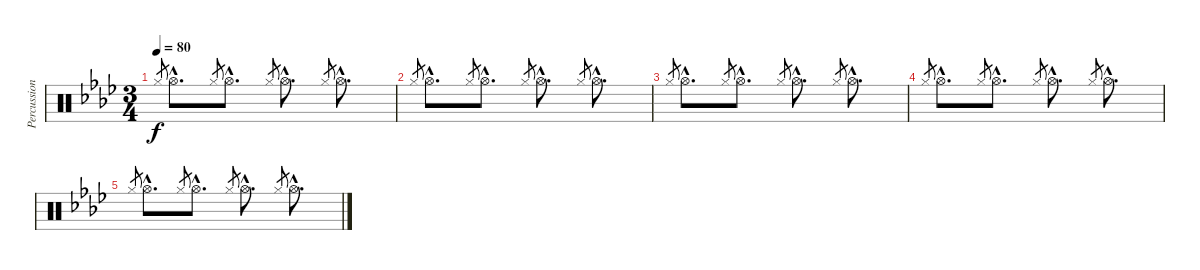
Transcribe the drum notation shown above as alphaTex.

\track ("Percussion" "Percussion") {instrument percussion}
\staff {score}
\articulation defaults
\ts (3 4)
\tempo 80
\clef neutral
\ks ab "Hi-Hat (closed)".8{gr dy f} "Hi-Hat (open)"{hac}.8{d} "Hi-Hat (closed)".8{gr} "Hi-Hat (open)"{hac}.8{d} "Hi-Hat (closed)".8{gr} "Hi-Hat (open)"{hac}.8{d} "Hi-Hat (closed)".8{gr} "Hi-Hat (open)"{hac}.8{d}
|
"Hi-Hat (closed)".8{gr} "Hi-Hat (open)"{hac}.8{d} "Hi-Hat (closed)".8{gr} "Hi-Hat (open)"{hac}.8{d} "Hi-Hat (closed)".8{gr} "Hi-Hat (open)"{hac}.8{d} "Hi-Hat (closed)".8{gr} "Hi-Hat (open)"{hac}.8{d} |
"Hi-Hat (closed)".8{gr} "Hi-Hat (open)"{hac}.8{d} "Hi-Hat (closed)".8{gr} "Hi-Hat (open)"{hac}.8{d} "Hi-Hat (closed)".8{gr} "Hi-Hat (open)"{hac}.8{d} "Hi-Hat (closed)".8{gr} "Hi-Hat (open)"{hac}.8{d} |
"Hi-Hat (closed)".8{gr} "Hi-Hat (open)"{hac}.8{d} "Hi-Hat (closed)".8{gr} "Hi-Hat (open)"{hac}.8{d} "Hi-Hat (closed)".8{gr} "Hi-Hat (open)"{hac}.8{d} "Hi-Hat (closed)".8{gr} "Hi-Hat (open)"{hac}.8{d} |
"Hi-Hat (closed)".8{gr} "Hi-Hat (open)"{hac}.8{d} "Hi-Hat (closed)".8{gr} "Hi-Hat (open)"{hac}.8{d} "Hi-Hat (closed)".8{gr} "Hi-Hat (open)"{hac}.8{d} "Hi-Hat (closed)".8{gr} "Hi-Hat (open)"{hac}.8{d}
